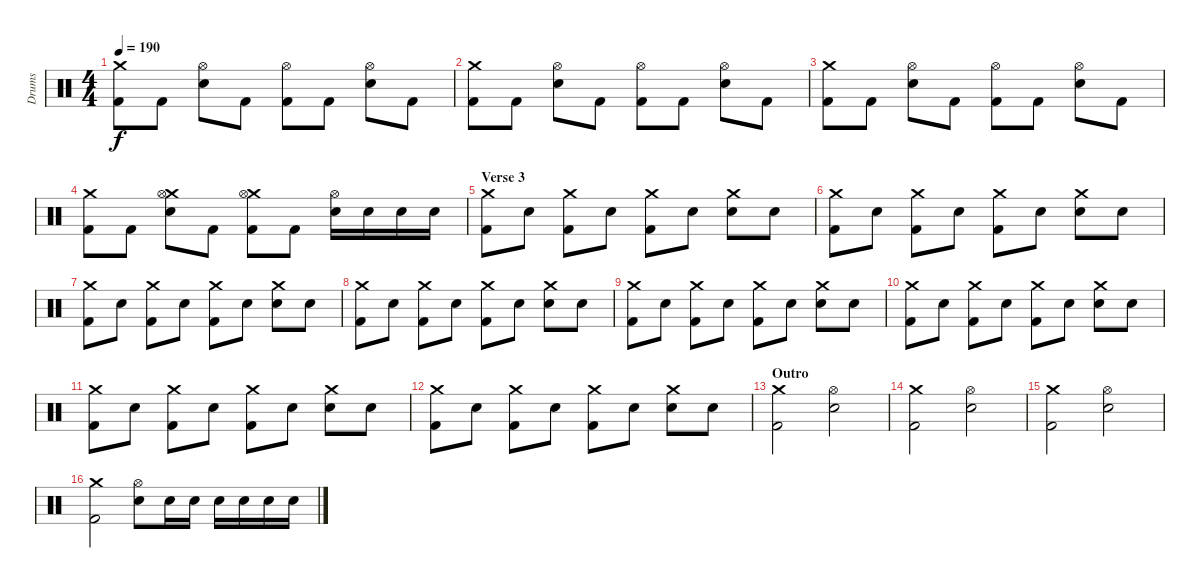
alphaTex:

\track ("Drums" "Drums") {instrument percussion}
\staff {score}
\articulation defaults
\ts (4 4)
\tempo 190
\clef neutral
\ks c
("Crash medium (hit)" "Kick (hit) 2").8{dy f} "Kick (hit) 2".8 ("Hi-Hat (open)" "Snare (hit) 2").8 "Kick (hit) 2".8 ("Hi-Hat (open)" "Kick (hit) 2").8 "Kick (hit) 2".8 ("Hi-Hat (open)" "Snare (hit) 2").8 "Kick (hit) 2".8 |
("Crash medium (hit)" "Kick (hit) 2").8 "Kick (hit) 2".8 ("Hi-Hat (open)" "Snare (hit) 2").8 "Kick (hit) 2".8 ("Hi-Hat (open)" "Kick (hit) 2").8 "Kick (hit) 2".8 ("Hi-Hat (open)" "Snare (hit) 2").8 "Kick (hit) 2".8 |
("Crash medium (hit)" "Kick (hit) 2").8 "Kick (hit) 2".8 ("Hi-Hat (open)" "Snare (hit) 2").8 "Kick (hit) 2".8 ("Hi-Hat (open)" "Kick (hit) 2").8 "Kick (hit) 2".8 ("Hi-Hat (open)" "Snare (hit) 2").8 "Kick (hit) 2".8 |
("Crash medium (hit)" "Kick (hit) 2").8 "Kick (hit) 2".8 ("Crash medium (hit)" "Hi-Hat (open)" "Snare (hit) 2").8 "Kick (hit) 2".8 ("Crash medium (hit)" "Hi-Hat (open)" "Kick (hit) 2").8 "Kick (hit) 2".8 ("Hi-Hat (open)" "Snare (hit) 2").16 "Snare (hit) 2".16 "Snare (hit) 2".16 "Snare (hit) 2".16 |
\section ("" "Verse 3")
("Crash medium (hit)" "Kick (hit) 2").8 "Snare (hit) 2".8 ("Crash medium (hit)" "Kick (hit) 2").8 "Snare (hit) 2".8 ("Crash medium (hit)" "Kick (hit) 2").8 "Snare (hit) 2".8 ("Crash medium (hit)" "Snare (hit) 2").8 "Snare (hit) 2".8 |
("Crash medium (hit)" "Kick (hit) 2").8 "Snare (hit) 2".8 ("Crash medium (hit)" "Kick (hit) 2").8 "Snare (hit) 2".8 ("Crash medium (hit)" "Kick (hit) 2").8 "Snare (hit) 2".8 ("Crash medium (hit)" "Snare (hit) 2").8 "Snare (hit) 2".8 |
("Crash medium (hit)" "Kick (hit) 2").8 "Snare (hit) 2".8 ("Crash medium (hit)" "Kick (hit) 2").8 "Snare (hit) 2".8 ("Crash medium (hit)" "Kick (hit) 2").8 "Snare (hit) 2".8 ("Crash medium (hit)" "Snare (hit) 2").8 "Snare (hit) 2".8 |
("Crash medium (hit)" "Kick (hit) 2").8 "Snare (hit) 2".8 ("Crash medium (hit)" "Kick (hit) 2").8 "Snare (hit) 2".8 ("Crash medium (hit)" "Kick (hit) 2").8 "Snare (hit) 2".8 ("Crash medium (hit)" "Snare (hit) 2").8 "Snare (hit) 2".8 |
("Crash medium (hit)" "Kick (hit) 2").8 "Snare (hit) 2".8 ("Crash medium (hit)" "Kick (hit) 2").8 "Snare (hit) 2".8 ("Crash medium (hit)" "Kick (hit) 2").8 "Snare (hit) 2".8 ("Crash medium (hit)" "Snare (hit) 2").8 "Snare (hit) 2".8 |
("Crash medium (hit)" "Kick (hit) 2").8 "Snare (hit) 2".8 ("Crash medium (hit)" "Kick (hit) 2").8 "Snare (hit) 2".8 ("Crash medium (hit)" "Kick (hit) 2").8 "Snare (hit) 2".8 ("Crash medium (hit)" "Snare (hit) 2").8 "Snare (hit) 2".8 |
("Crash medium (hit)" "Kick (hit) 2").8 "Snare (hit) 2".8 ("Crash medium (hit)" "Kick (hit) 2").8 "Snare (hit) 2".8 ("Crash medium (hit)" "Kick (hit) 2").8 "Snare (hit) 2".8 ("Crash medium (hit)" "Snare (hit) 2").8 "Snare (hit) 2".8 |
("Crash medium (hit)" "Kick (hit) 2").8 "Snare (hit) 2".8 ("Crash medium (hit)" "Kick (hit) 2").8 "Snare (hit) 2".8 ("Crash medium (hit)" "Kick (hit) 2").8 "Snare (hit) 2".8 ("Crash medium (hit)" "Snare (hit) 2").8 "Snare (hit) 2".8 |
\section ("" "Outro")
("Crash medium (hit)" "Kick (hit) 2").2 ("Hi-Hat (open)" "Snare (hit) 2").2 |
("Crash medium (hit)" "Kick (hit) 2").2 ("Hi-Hat (open)" "Snare (hit) 2").2 |
("Crash medium (hit)" "Kick (hit) 2").2 ("Hi-Hat (open)" "Snare (hit) 2").2 |
("Crash medium (hit)" "Kick (hit) 2").2 ("Hi-Hat (open)" "Snare (hit) 2").8 "Snare (hit) 2".16 "Snare (hit) 2".16 "Snare (hit) 2".16 "Snare (hit) 2".16 "Snare (hit) 2".16 "Snare (hit) 2".16
